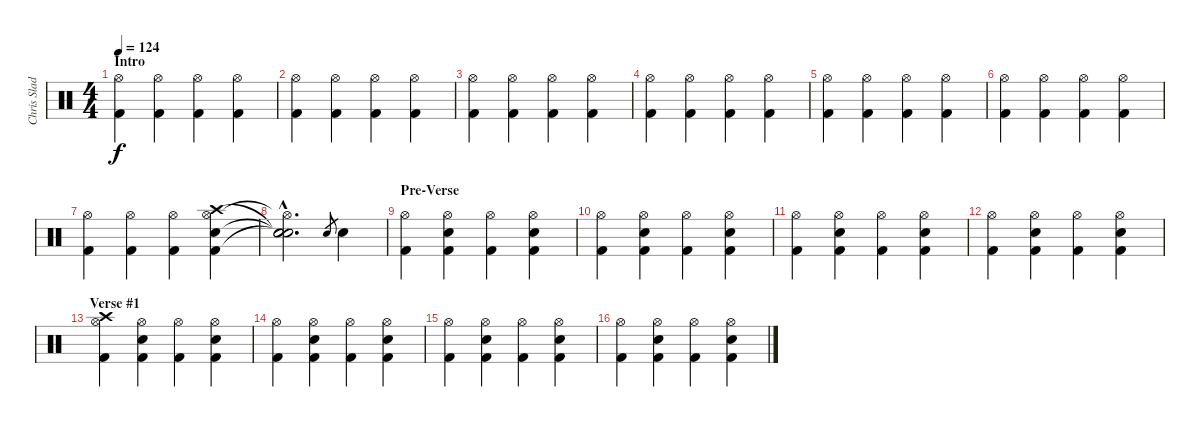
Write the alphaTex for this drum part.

\track ("Chris Slade" "Chris Slad") {instrument percussion}
\staff {score}
\articulation defaults
\ts (4 4)
\section ("" "Intro")
\tempo 124
\clef neutral
\ks c
("Hi-Hat (open)" "Kick (hit) 2").4{dy f} ("Hi-Hat (open)" "Kick (hit) 2").4 ("Hi-Hat (open)" "Kick (hit) 2").4 ("Hi-Hat (open)" "Kick (hit) 2").4 |
("Hi-Hat (open)" "Kick (hit) 2").4 ("Hi-Hat (open)" "Kick (hit) 2").4 ("Hi-Hat (open)" "Kick (hit) 2").4 ("Hi-Hat (open)" "Kick (hit) 2").4 |
("Hi-Hat (open)" "Kick (hit) 2").4 ("Hi-Hat (open)" "Kick (hit) 2").4 ("Hi-Hat (open)" "Kick (hit) 2").4 ("Hi-Hat (open)" "Kick (hit) 2").4 |
("Hi-Hat (open)" "Kick (hit) 2").4 ("Hi-Hat (open)" "Kick (hit) 2").4 ("Hi-Hat (open)" "Kick (hit) 2").4 ("Hi-Hat (open)" "Kick (hit) 2").4 |
("Hi-Hat (open)" "Kick (hit) 2").4 ("Hi-Hat (open)" "Kick (hit) 2").4 ("Hi-Hat (open)" "Kick (hit) 2").4 ("Hi-Hat (open)" "Kick (hit) 2").4 |
("Hi-Hat (open)" "Kick (hit) 2").4 ("Hi-Hat (open)" "Kick (hit) 2").4 ("Hi-Hat (open)" "Kick (hit) 2").4 ("Hi-Hat (open)" "Kick (hit) 2").4 |
("Hi-Hat (open)" "Kick (hit) 2").4 ("Hi-Hat (open)" "Kick (hit) 2").4 ("Hi-Hat (open)" "Kick (hit) 2").4 ("Hi-Hat (open)" "Crash high (hit)" "Snare (hit) 2" "Kick (hit) 2").4 |
("Hi-Hat (open)"{hac t} "Snare (hit)"{hac t} "Snare (hit)"{hac t} "Snare (hit)"{hac t}).2{d} "Snare (hit) 2".8{gr} "Snare (hit) 2".4 |
\section ("" "Pre-Verse")
("Hi-Hat (open)" "Kick (hit) 2").4 ("Hi-Hat (open)" "Snare (hit) 2" "Kick (hit) 2").4 ("Hi-Hat (open)" "Kick (hit) 2").4 ("Hi-Hat (open)" "Snare (hit) 2" "Kick (hit) 2").4 |
("Hi-Hat (open)" "Kick (hit) 2").4 ("Hi-Hat (open)" "Snare (hit) 2" "Kick (hit) 2").4 ("Hi-Hat (open)" "Kick (hit) 2").4 ("Hi-Hat (open)" "Snare (hit) 2" "Kick (hit) 2").4 |
("Hi-Hat (open)" "Kick (hit) 2").4 ("Hi-Hat (open)" "Snare (hit) 2" "Kick (hit) 2").4 ("Hi-Hat (open)" "Kick (hit) 2").4 ("Hi-Hat (open)" "Snare (hit) 2" "Kick (hit) 2").4 |
("Hi-Hat (open)" "Kick (hit) 2").4 ("Hi-Hat (open)" "Snare (hit) 2" "Kick (hit) 2").4 ("Hi-Hat (open)" "Kick (hit) 2").4 ("Hi-Hat (open)" "Snare (hit) 2" "Kick (hit) 2").4 |
\section ("" "Verse #1")
("Hi-Hat (open)" "Crash high (hit)" "Kick (hit) 2").4 ("Hi-Hat (open)" "Snare (hit) 2" "Kick (hit) 2").4 ("Hi-Hat (open)" "Kick (hit) 2").4 ("Hi-Hat (open)" "Snare (hit) 2" "Kick (hit) 2").4 |
("Hi-Hat (open)" "Kick (hit) 2").4 ("Hi-Hat (open)" "Snare (hit) 2" "Kick (hit) 2").4 ("Hi-Hat (open)" "Kick (hit) 2").4 ("Hi-Hat (open)" "Snare (hit) 2" "Kick (hit) 2").4 |
("Hi-Hat (open)" "Kick (hit) 2").4 ("Hi-Hat (open)" "Snare (hit) 2" "Kick (hit) 2").4 ("Hi-Hat (open)" "Kick (hit) 2").4 ("Hi-Hat (open)" "Snare (hit) 2" "Kick (hit) 2").4 |
("Hi-Hat (open)" "Kick (hit) 2").4 ("Hi-Hat (open)" "Snare (hit) 2" "Kick (hit) 2").4 ("Hi-Hat (open)" "Kick (hit) 2").4 ("Hi-Hat (open)" "Snare (hit) 2" "Kick (hit) 2").4
